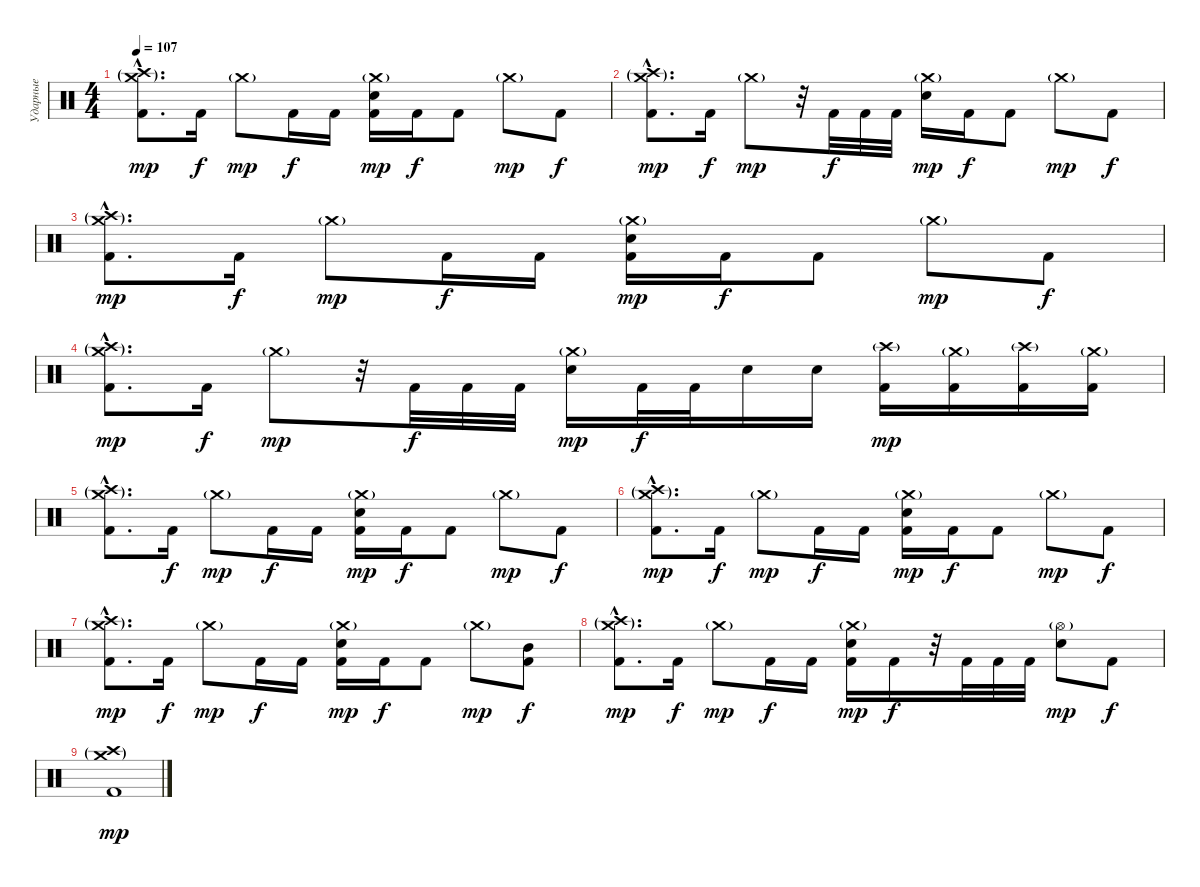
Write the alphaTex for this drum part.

\track ("Ударные" "Ударные") {instrument percussion}
\staff {score}
\articulation defaults
\ts (4 4)
\tempo 107
\clef neutral
\ks c
("Crash high (hit)"{g hac} "Crash medium (hit)"{g hac} "Kick (hit) 2"{hac}).8{d dy mp} "Kick (hit) 2".16{dy f} "Crash medium (hit)"{g}.8{dy mp} "Kick (hit) 2".16{dy f} "Kick (hit) 2".16 ("Crash medium (hit)"{g} "Electric Snare (hit)" "Kick (hit) 2").16{dy mp} "Kick (hit) 2".16{dy f} "Kick (hit) 2".8 "Crash medium (hit)"{g}.8{dy mp} "Kick (hit) 2".8{dy f} |
("Crash high (hit)"{g hac} "Crash medium (hit)"{g hac} "Kick (hit) 2"{hac}).8{d dy mp} "Kick (hit) 2".16{dy f} "Crash medium (hit)"{g}.8{dy mp} r.32 "Kick (hit) 2".32{dy f} "Kick (hit) 2".32 "Kick (hit) 2".32 ("Crash medium (hit)"{g} "Electric Snare (hit)").16{dy mp} "Kick (hit) 2".16{dy f} "Kick (hit) 2".8 "Crash medium (hit)"{g}.8{dy mp} "Kick (hit) 2".8{dy f} |
("Crash high (hit)"{g hac} "Crash medium (hit)"{g hac} "Kick (hit) 2"{hac}).8{d dy mp} "Kick (hit) 2".16{dy f} "Crash medium (hit)"{g}.8{dy mp} "Kick (hit) 2".16{dy f} "Kick (hit) 2".16 ("Crash medium (hit)"{g} "Electric Snare (hit)" "Kick (hit) 2").16{dy mp} "Kick (hit) 2".16{dy f} "Kick (hit) 2".8 "Crash medium (hit)"{g}.8{dy mp} "Kick (hit) 2".8{dy f} |
("Crash high (hit)"{g hac} "Crash medium (hit)"{g hac} "Kick (hit) 2"{hac}).8{d dy mp} "Kick (hit) 2".16{dy f} "Crash medium (hit)"{g}.8{dy mp} r.32 "Kick (hit) 2".32{dy f} "Kick (hit) 2".32 "Kick (hit) 2".32 ("Crash medium (hit)"{g} "Electric Snare (hit)").16{dy mp} "Kick (hit) 2".32{dy f} "Kick (hit) 2".32 "Electric Snare (hit)".16 "Electric Snare (hit)".16 ("Crash high (hit)"{g} "Kick (hit) 2").16{dy mp} ("Crash medium (hit)"{g} "Kick (hit) 2").16 ("Crash high (hit)"{g} "Kick (hit) 2").16 ("Crash medium (hit)"{g} "Kick (hit) 2").16 |
("Crash high (hit)"{g hac} "Crash medium (hit)"{g hac} "Kick (hit) 2"{hac}).8{d} "Kick (hit) 2".16{dy f} "Crash medium (hit)"{g}.8{dy mp} "Kick (hit) 2".16{dy f} "Kick (hit) 2".16 ("Crash medium (hit)"{g} "Electric Snare (hit)" "Kick (hit) 2").16{dy mp} "Kick (hit) 2".16{dy f} "Kick (hit) 2".8 "Crash medium (hit)"{g}.8{dy mp} "Kick (hit) 2".8{dy f} |
("Crash high (hit)"{g hac} "Crash medium (hit)"{g hac} "Kick (hit) 2"{hac}).8{d dy mp} "Kick (hit) 2".16{dy f} "Crash medium (hit)"{g}.8{dy mp} "Kick (hit) 2".16{dy f} "Kick (hit) 2".16 ("Crash medium (hit)"{g} "Electric Snare (hit)" "Kick (hit) 2").16{dy mp} "Kick (hit) 2".16{dy f} "Kick (hit) 2".8 "Crash medium (hit)"{g}.8{dy mp} "Kick (hit) 2".8{dy f} |
("Crash high (hit)"{g hac} "Crash medium (hit)"{g hac} "Kick (hit) 2"{hac}).8{d dy mp} "Kick (hit) 2".16{dy f} "Crash medium (hit)"{g}.8{dy mp} "Kick (hit) 2".16{dy f} "Kick (hit) 2".16 ("Crash medium (hit)"{g} "Electric Snare (hit)" "Kick (hit) 2").16{dy mp} "Kick (hit) 2".16{dy f} "Kick (hit) 2".8 "Crash medium (hit)"{g}.8{dy mp} ("Mid Tom (hit)" "Kick (hit) 2").8{dy f} |
("Crash high (hit)"{g hac} "Crash medium (hit)"{g hac} "Kick (hit) 2"{hac}).8{d dy mp} "Kick (hit) 2".16{dy f} "Crash medium (hit)"{g}.8{dy mp} "Kick (hit) 2".16{dy f} "Kick (hit) 2".16 ("Crash medium (hit)"{g} "Electric Snare (hit)" "Kick (hit) 2").16{dy mp} "Kick (hit) 2".16{dy f} r.32 "Kick (hit) 2".32 "Kick (hit) 2".32 "Kick (hit) 2".32 ("Hi-Hat (open)"{g} "Electric Snare (hit)").8{dy mp} "Kick (hit) 2".8{dy f} |
("Crash high (hit)"{g} "Crash medium (hit)"{g} "Kick (hit) 2").1{dy mp}
